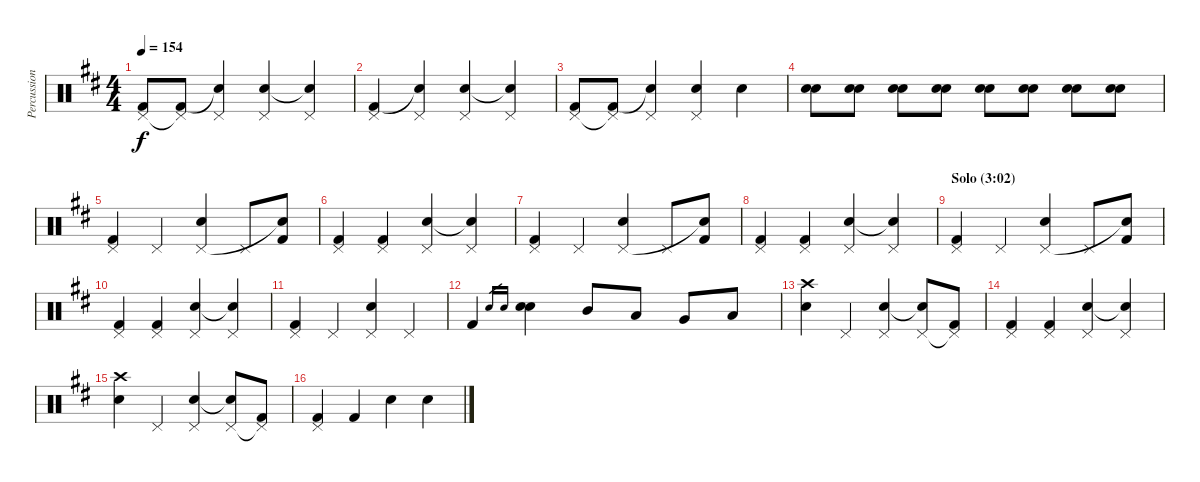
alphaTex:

\track ("Percussion" "Percussion") {instrument percussion}
\staff {score}
\articulation defaults
\ts (4 4)
\tempo 154
\clef neutral
\ks d
("Kick (hit) 2" "Pedal Hi-Hat (hit)").8{dy f} ("Kick (hit) 2" "Pedal Hi-Hat (hit)"{t}).8 ("Snare (hit)"{t} "Pedal Hi-Hat (hit)").4 ("Electric Snare (hit)" "Pedal Hi-Hat (hit)").4 ("Snare (hit) 2"{t} "Pedal Hi-Hat (hit)").4 |
("Kick (hit) 2" "Pedal Hi-Hat (hit)").4 ("Snare (hit)"{t} "Pedal Hi-Hat (hit)").4 ("Electric Snare (hit)" "Pedal Hi-Hat (hit)").4 ("Snare (hit)"{t} "Pedal Hi-Hat (hit)").4 |
("Kick (hit) 2" "Pedal Hi-Hat (hit)").8 ("Kick (hit) 2" "Pedal Hi-Hat (hit)"{t}).8 ("Snare (hit)"{t} "Pedal Hi-Hat (hit)").4 ("Electric Snare (hit)" "Pedal Hi-Hat (hit)").4 "Electric Snare (hit)".4 |
("Electric Snare (hit)" "Electric Snare (hit)").8 ("Electric Snare (hit)" "Electric Snare (hit)").8 ("Electric Snare (hit)" "Electric Snare (hit)").8 ("Electric Snare (hit)" "Electric Snare (hit)").8 ("Electric Snare (hit)" "Electric Snare (hit)").8 ("Electric Snare (hit)" "Electric Snare (hit)").8 ("Electric Snare (hit)" "Electric Snare (hit)").8 ("Electric Snare (hit)" "Electric Snare (hit)").8 |
("Kick (hit) 2" "Pedal Hi-Hat (hit)").4 "Pedal Hi-Hat (hit)".4 ("Electric Snare (hit)" "Pedal Hi-Hat (hit)").4 "Pedal Hi-Hat (hit)".8 ("Kick (hit) 2" "Snare (hit)"{t}).8 |
("Kick (hit) 2" "Pedal Hi-Hat (hit)").4 ("Kick (hit) 2" "Pedal Hi-Hat (hit)").4 ("Electric Snare (hit)" "Pedal Hi-Hat (hit)").4 ("Snare (hit)"{t} "Pedal Hi-Hat (hit)").4 |
("Kick (hit) 2" "Pedal Hi-Hat (hit)").4 "Pedal Hi-Hat (hit)".4 ("Electric Snare (hit)" "Pedal Hi-Hat (hit)").4 "Pedal Hi-Hat (hit)".8 ("Kick (hit) 2" "Snare (hit)"{t}).8 |
("Kick (hit) 2" "Pedal Hi-Hat (hit)").4 ("Kick (hit) 2" "Pedal Hi-Hat (hit)").4 ("Electric Snare (hit)" "Pedal Hi-Hat (hit)").4 ("Snare (hit)"{t} "Pedal Hi-Hat (hit)").4 |
\section ("" "Solo (3:02)")
("Kick (hit) 2" "Pedal Hi-Hat (hit)").4 "Pedal Hi-Hat (hit)".4 ("Electric Snare (hit)" "Pedal Hi-Hat (hit)").4 "Pedal Hi-Hat (hit)".8 ("Kick (hit) 2" "Snare (hit)"{t}).8 |
("Kick (hit) 2" "Pedal Hi-Hat (hit)").4 ("Kick (hit) 2" "Pedal Hi-Hat (hit)").4 ("Electric Snare (hit)" "Pedal Hi-Hat (hit)").4 ("Snare (hit)"{t} "Pedal Hi-Hat (hit)").4 |
("Kick (hit) 2" "Pedal Hi-Hat (hit)").4 "Pedal Hi-Hat (hit)".4 ("Electric Snare (hit)" "Pedal Hi-Hat (hit)").4 "Pedal Hi-Hat (hit)".4 |
"Kick (hit) 2".4 "Electric Snare (hit)".16{gr} "Electric Snare (hit)".16{gr} ("Electric Snare (hit)" "Electric Snare (hit)").4 "Mid Tom (hit)".8 "Low Tom (hit)".8 "Very Low Tom (hit)".8 "Low Floor Tom (hit)".8 |
("Electric Snare (hit)" "Crash high (hit)").4 "Pedal Hi-Hat (hit)".4 ("Electric Snare (hit)" "Pedal Hi-Hat (hit)").4 ("Snare (hit)"{t} "Pedal Hi-Hat (hit)").8 ("Kick (hit) 2" "Pedal Hi-Hat (hit)"{t}).8 |
("Kick (hit) 2" "Pedal Hi-Hat (hit)").4 ("Kick (hit) 2" "Pedal Hi-Hat (hit)").4 ("Electric Snare (hit)" "Pedal Hi-Hat (hit)").4 ("Snare (hit)"{t} "Pedal Hi-Hat (hit)").4 |
("Electric Snare (hit)" "Crash high (hit)").4 "Pedal Hi-Hat (hit)".4 ("Electric Snare (hit)" "Pedal Hi-Hat (hit)").4 ("Snare (hit)"{t} "Pedal Hi-Hat (hit)").8 ("Kick (hit) 2" "Pedal Hi-Hat (hit)"{t}).8 |
("Kick (hit) 2" "Pedal Hi-Hat (hit)").4 "Kick (hit) 2".4 "Electric Snare (hit)".4 "Electric Snare (hit)".4
